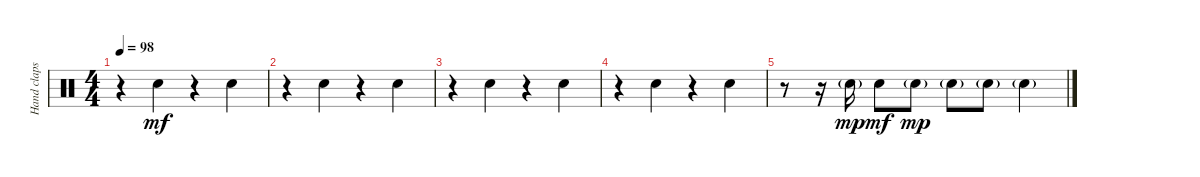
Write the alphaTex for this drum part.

\track ("Hand claps" "Hand claps") {instrument percussion}
\staff {score}
\articulation defaults
\ts (4 4)
\tempo 98
\clef neutral
\ks c
r.4{dy mf} "Hand Clap (hit)".4 r.4 "Hand Clap (hit)".4 |
r.4 "Hand Clap (hit)".4 r.4 "Hand Clap (hit)".4 |
r.4 "Hand Clap (hit)".4 r.4 "Hand Clap (hit)".4 |
r.4 "Hand Clap (hit)".4 r.4 "Hand Clap (hit)".4 |
r.8 r.16 "Hand Clap (hit)"{g}.16{dy mp} "Hand Clap (hit)".8{dy mf} "Hand Clap (hit)"{g}.8{dy mp} "Hand Clap (hit)"{g}.8 "Hand Clap (hit)"{g}.8 "Hand Clap (hit)"{g}.4
